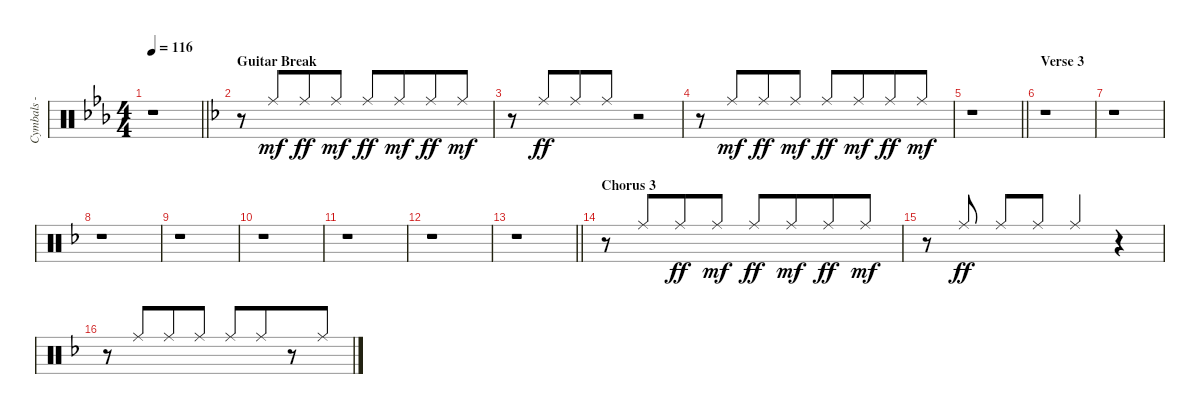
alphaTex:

\track ("Cymbals - ride" "Cymbals - ") {instrument percussion}
\staff {score}
\articulation defaults
\ts (4 4)
\tempo 116
\clef neutral
\barLineRight lightlight
\ks eb
r.1{dy mf} |
\section ("" "Guitar Break")
\ks f
r.8 "Ride (middle)".8{beam Up beam merge} "Ride (middle)".8{dy ff beam Up} "Ride (middle)".8{dy mf beam Up} "Ride (middle)".8{dy ff beam Up} "Ride (middle)".8{dy mf beam Up beam merge} "Ride (middle)".8{dy ff beam Up} "Ride (middle)".8{dy mf beam Up} |
r.8 "Ride (middle)".8{dy ff beam Up beam merge} "Ride (middle)".8{beam Up} "Ride (middle)".8{beam Up} r.2 |
r.8 "Ride (middle)".8{dy mf beam Up beam merge} "Ride (middle)".8{dy ff beam Up} "Ride (middle)".8{dy mf beam Up} "Ride (middle)".8{dy ff beam Up} "Ride (middle)".8{dy mf beam Up beam merge} "Ride (middle)".8{dy ff beam Up} "Ride (middle)".8{dy mf beam Up} |
\barLineRight lightlight
r.1 |
\section ("" "Verse 3")
r.1 |
r.1 |
r.1 |
r.1 |
r.1 |
r.1 |
r.1 |
\barLineRight lightlight
r.1 |
\section ("" "Chorus 3")
r.8 "Ride (middle)".8{beam Up beam merge} "Ride (middle)".8{dy ff beam Up} "Ride (middle)".8{dy mf beam Up} "Ride (middle)".8{dy ff beam Up} "Ride (middle)".8{dy mf beam Up beam merge} "Ride (middle)".8{dy ff beam Up} "Ride (middle)".8{dy mf beam Up} |
r.8 "Ride (middle)".8{dy ff beam Up beam split} "Ride (middle)".8{beam Up} "Ride (middle)".8{beam Up} "Ride (middle)".4{beam Up} r.4 |
r.8 "Ride (middle)".8{beam Up beam merge} "Ride (middle)".8{beam Up} "Ride (middle)".8{beam Up} "Ride (middle)".8{beam Up} "Ride (middle)".8{beam Up beam merge} r.8 "Ride (middle)".8{beam Up}
